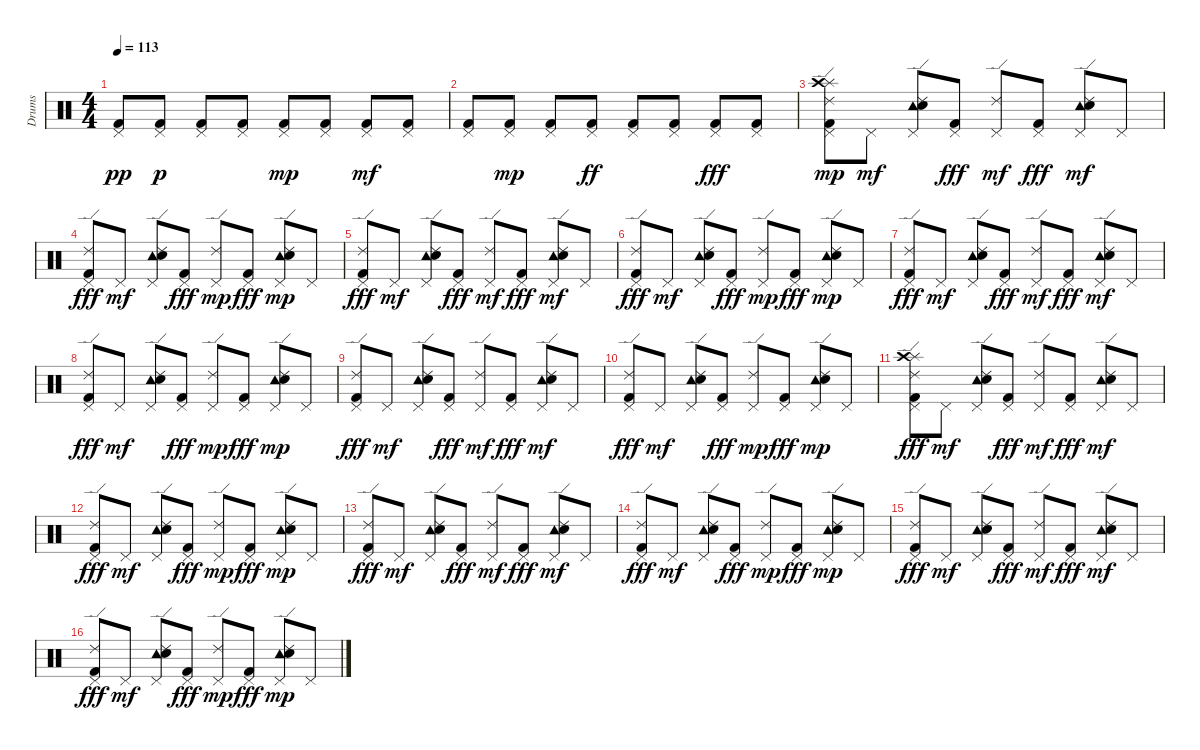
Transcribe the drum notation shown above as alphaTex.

\track ("Drums" "Drums") {instrument percussion}
\staff {score}
\articulation defaults
\ts (4 4)
\tempo 113
\clef neutral
\ks c
("Pedal Hi-Hat (hit)" "Kick (hit) 2").8{dy pp} ("Pedal Hi-Hat (hit)" "Kick (hit) 2").8{dy p} ("Pedal Hi-Hat (hit)" "Kick (hit) 2").8 ("Pedal Hi-Hat (hit)" "Kick (hit) 2").8 ("Pedal Hi-Hat (hit)" "Kick (hit) 2").8{dy mp} ("Pedal Hi-Hat (hit)" "Kick (hit) 2").8 ("Pedal Hi-Hat (hit)" "Kick (hit) 2").8{dy mf} ("Pedal Hi-Hat (hit)" "Kick (hit) 2").8 |
("Pedal Hi-Hat (hit)" "Kick (hit) 2").8 ("Pedal Hi-Hat (hit)" "Kick (hit) 2").8{dy mp} ("Pedal Hi-Hat (hit)" "Kick (hit) 2").8 ("Pedal Hi-Hat (hit)" "Kick (hit) 2").8{dy ff} ("Pedal Hi-Hat (hit)" "Kick (hit) 2").8 ("Pedal Hi-Hat (hit)" "Kick (hit) 2").8 ("Pedal Hi-Hat (hit)" "Kick (hit) 2").8{dy fff} ("Pedal Hi-Hat (hit)" "Kick (hit) 2").8 |
("Ride (edge) 2" "Pedal Hi-Hat (hit)" "Kick (hit) 2" "Splash (hit)" "Crash high (hit)").8{dy mp} "Pedal Hi-Hat (hit)".8{dy mf} ("Ride (edge) 2" "Tambourine (hit)" "Pedal Hi-Hat (hit)" "Electric Snare (hit)").8 ("Pedal Hi-Hat (hit)" "Kick (hit) 2").8{dy fff} ("Ride (edge) 2" "Pedal Hi-Hat (hit)").8{dy mf} ("Pedal Hi-Hat (hit)" "Kick (hit) 2").8{dy fff} ("Ride (edge) 2" "Tambourine (hit)" "Pedal Hi-Hat (hit)" "Electric Snare (hit)").8{dy mf} "Pedal Hi-Hat (hit)".8 |
("Ride (edge) 2" "Pedal Hi-Hat (hit)" "Kick (hit) 2").8{dy fff} "Pedal Hi-Hat (hit)".8{dy mf} ("Ride (edge) 2" "Tambourine (hit)" "Pedal Hi-Hat (hit)" "Electric Snare (hit)").8 ("Pedal Hi-Hat (hit)" "Kick (hit) 2").8{dy fff} ("Ride (edge) 2" "Pedal Hi-Hat (hit)").8{dy mp} ("Pedal Hi-Hat (hit)" "Kick (hit) 2").8{dy fff} ("Ride (edge) 2" "Tambourine (hit)" "Pedal Hi-Hat (hit)" "Electric Snare (hit)").8{dy mp} "Pedal Hi-Hat (hit)".8 |
("Ride (edge) 2" "Pedal Hi-Hat (hit)" "Kick (hit) 2").8{dy fff} "Pedal Hi-Hat (hit)".8{dy mf} ("Ride (edge) 2" "Tambourine (hit)" "Pedal Hi-Hat (hit)" "Electric Snare (hit)").8 ("Pedal Hi-Hat (hit)" "Kick (hit) 2").8{dy fff} ("Ride (edge) 2" "Pedal Hi-Hat (hit)").8{dy mf} ("Pedal Hi-Hat (hit)" "Kick (hit) 2").8{dy fff} ("Ride (edge) 2" "Tambourine (hit)" "Pedal Hi-Hat (hit)" "Electric Snare (hit)").8{dy mf} "Pedal Hi-Hat (hit)".8 |
("Ride (edge) 2" "Pedal Hi-Hat (hit)" "Kick (hit) 2").8{dy fff} "Pedal Hi-Hat (hit)".8{dy mf} ("Ride (edge) 2" "Tambourine (hit)" "Pedal Hi-Hat (hit)" "Electric Snare (hit)").8 ("Pedal Hi-Hat (hit)" "Kick (hit) 2").8{dy fff} ("Ride (edge) 2" "Pedal Hi-Hat (hit)").8{dy mp} ("Pedal Hi-Hat (hit)" "Kick (hit) 2").8{dy fff} ("Ride (edge) 2" "Tambourine (hit)" "Pedal Hi-Hat (hit)" "Electric Snare (hit)").8{dy mp} "Pedal Hi-Hat (hit)".8 |
("Ride (edge) 2" "Pedal Hi-Hat (hit)" "Kick (hit) 2").8{dy fff} "Pedal Hi-Hat (hit)".8{dy mf} ("Ride (edge) 2" "Tambourine (hit)" "Pedal Hi-Hat (hit)" "Electric Snare (hit)").8 ("Pedal Hi-Hat (hit)" "Kick (hit) 2").8{dy fff} ("Ride (edge) 2" "Pedal Hi-Hat (hit)").8{dy mf} ("Pedal Hi-Hat (hit)" "Kick (hit) 2").8{dy fff} ("Ride (edge) 2" "Tambourine (hit)" "Pedal Hi-Hat (hit)" "Electric Snare (hit)").8{dy mf} "Pedal Hi-Hat (hit)".8 |
("Ride (edge) 2" "Pedal Hi-Hat (hit)" "Kick (hit) 2").8{dy fff} "Pedal Hi-Hat (hit)".8{dy mf} ("Ride (edge) 2" "Tambourine (hit)" "Pedal Hi-Hat (hit)" "Electric Snare (hit)").8 ("Pedal Hi-Hat (hit)" "Kick (hit) 2").8{dy fff} ("Ride (edge) 2" "Pedal Hi-Hat (hit)").8{dy mp} ("Pedal Hi-Hat (hit)" "Kick (hit) 2").8{dy fff} ("Ride (edge) 2" "Tambourine (hit)" "Pedal Hi-Hat (hit)" "Electric Snare (hit)").8{dy mp} "Pedal Hi-Hat (hit)".8 |
("Ride (edge) 2" "Pedal Hi-Hat (hit)" "Kick (hit) 2").8{dy fff} "Pedal Hi-Hat (hit)".8{dy mf} ("Ride (edge) 2" "Tambourine (hit)" "Pedal Hi-Hat (hit)" "Electric Snare (hit)").8 ("Pedal Hi-Hat (hit)" "Kick (hit) 2").8{dy fff} ("Ride (edge) 2" "Pedal Hi-Hat (hit)").8{dy mf} ("Pedal Hi-Hat (hit)" "Kick (hit) 2").8{dy fff} ("Ride (edge) 2" "Tambourine (hit)" "Pedal Hi-Hat (hit)" "Electric Snare (hit)").8{dy mf} "Pedal Hi-Hat (hit)".8 |
("Ride (edge) 2" "Pedal Hi-Hat (hit)" "Kick (hit) 2").8{dy fff} "Pedal Hi-Hat (hit)".8{dy mf} ("Ride (edge) 2" "Tambourine (hit)" "Pedal Hi-Hat (hit)" "Electric Snare (hit)").8 ("Pedal Hi-Hat (hit)" "Kick (hit) 2").8{dy fff} ("Ride (edge) 2" "Pedal Hi-Hat (hit)").8{dy mp} ("Pedal Hi-Hat (hit)" "Kick (hit) 2").8{dy fff} ("Ride (edge) 2" "Tambourine (hit)" "Pedal Hi-Hat (hit)" "Electric Snare (hit)").8{dy mp} "Pedal Hi-Hat (hit)".8 |
("Splash (hit)" "Crash high (hit)" "Ride (edge) 2" "Pedal Hi-Hat (hit)" "Kick (hit) 2").8{dy fff} "Pedal Hi-Hat (hit)".8{dy mf} ("Ride (edge) 2" "Tambourine (hit)" "Pedal Hi-Hat (hit)" "Electric Snare (hit)").8 ("Pedal Hi-Hat (hit)" "Kick (hit) 2").8{dy fff} ("Ride (edge) 2" "Pedal Hi-Hat (hit)").8{dy mf} ("Pedal Hi-Hat (hit)" "Kick (hit) 2").8{dy fff} ("Ride (edge) 2" "Tambourine (hit)" "Pedal Hi-Hat (hit)" "Electric Snare (hit)").8{dy mf} "Pedal Hi-Hat (hit)".8 |
("Ride (edge) 2" "Pedal Hi-Hat (hit)" "Kick (hit) 2").8{dy fff} "Pedal Hi-Hat (hit)".8{dy mf} ("Ride (edge) 2" "Tambourine (hit)" "Pedal Hi-Hat (hit)" "Electric Snare (hit)").8 ("Pedal Hi-Hat (hit)" "Kick (hit) 2").8{dy fff} ("Ride (edge) 2" "Pedal Hi-Hat (hit)").8{dy mp} ("Pedal Hi-Hat (hit)" "Kick (hit) 2").8{dy fff} ("Ride (edge) 2" "Tambourine (hit)" "Pedal Hi-Hat (hit)" "Electric Snare (hit)").8{dy mp} "Pedal Hi-Hat (hit)".8 |
("Ride (edge) 2" "Pedal Hi-Hat (hit)" "Kick (hit) 2").8{dy fff} "Pedal Hi-Hat (hit)".8{dy mf} ("Ride (edge) 2" "Tambourine (hit)" "Pedal Hi-Hat (hit)" "Electric Snare (hit)").8 ("Pedal Hi-Hat (hit)" "Kick (hit) 2").8{dy fff} ("Ride (edge) 2" "Pedal Hi-Hat (hit)").8{dy mf} ("Pedal Hi-Hat (hit)" "Kick (hit) 2").8{dy fff} ("Ride (edge) 2" "Tambourine (hit)" "Pedal Hi-Hat (hit)" "Electric Snare (hit)").8{dy mf} "Pedal Hi-Hat (hit)".8 |
("Ride (edge) 2" "Pedal Hi-Hat (hit)" "Kick (hit) 2").8{dy fff} "Pedal Hi-Hat (hit)".8{dy mf} ("Ride (edge) 2" "Tambourine (hit)" "Pedal Hi-Hat (hit)" "Electric Snare (hit)").8 ("Pedal Hi-Hat (hit)" "Kick (hit) 2").8{dy fff} ("Ride (edge) 2" "Pedal Hi-Hat (hit)").8{dy mp} ("Pedal Hi-Hat (hit)" "Kick (hit) 2").8{dy fff} ("Ride (edge) 2" "Tambourine (hit)" "Pedal Hi-Hat (hit)" "Electric Snare (hit)").8{dy mp} "Pedal Hi-Hat (hit)".8 |
("Ride (edge) 2" "Pedal Hi-Hat (hit)" "Kick (hit) 2").8{dy fff} "Pedal Hi-Hat (hit)".8{dy mf} ("Ride (edge) 2" "Tambourine (hit)" "Pedal Hi-Hat (hit)" "Electric Snare (hit)").8 ("Pedal Hi-Hat (hit)" "Kick (hit) 2").8{dy fff} ("Ride (edge) 2" "Pedal Hi-Hat (hit)").8{dy mf} ("Pedal Hi-Hat (hit)" "Kick (hit) 2").8{dy fff} ("Ride (edge) 2" "Tambourine (hit)" "Pedal Hi-Hat (hit)" "Electric Snare (hit)").8{dy mf} "Pedal Hi-Hat (hit)".8 |
("Ride (edge) 2" "Pedal Hi-Hat (hit)" "Kick (hit) 2").8{dy fff} "Pedal Hi-Hat (hit)".8{dy mf} ("Ride (edge) 2" "Tambourine (hit)" "Pedal Hi-Hat (hit)" "Electric Snare (hit)").8 ("Pedal Hi-Hat (hit)" "Kick (hit) 2").8{dy fff} ("Ride (edge) 2" "Pedal Hi-Hat (hit)").8{dy mp} ("Pedal Hi-Hat (hit)" "Kick (hit) 2").8{dy fff} ("Ride (edge) 2" "Tambourine (hit)" "Pedal Hi-Hat (hit)" "Electric Snare (hit)").8{dy mp} "Pedal Hi-Hat (hit)".8
